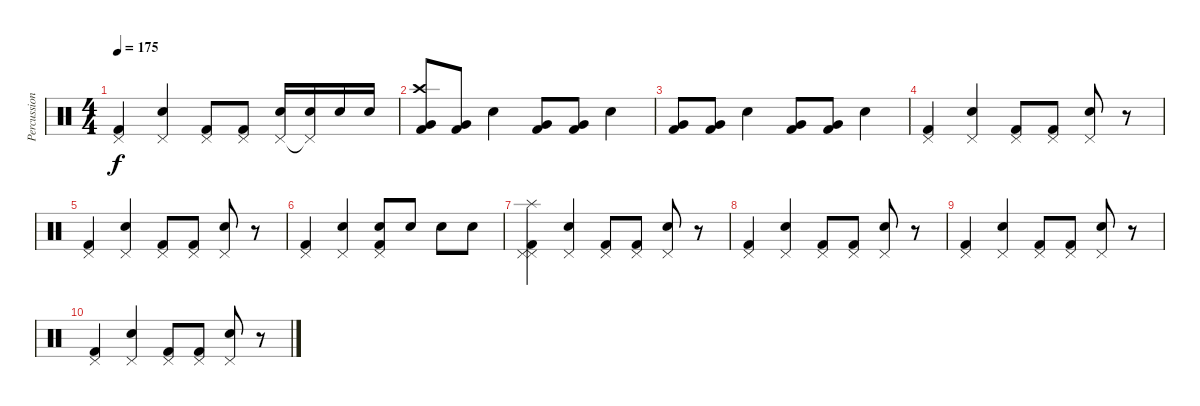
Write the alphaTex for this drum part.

\track ("Percussion" "Percussion") {instrument percussion}
\staff {score}
\articulation defaults
\ts (4 4)
\tempo 175
\clef neutral
\ks c
("Pedal Hi-Hat (hit)" "Kick (hit) 2").4{dy f} ("Pedal Hi-Hat (hit)" "Snare (hit) 2").4 ("Pedal Hi-Hat (hit)" "Kick (hit) 2").8 ("Pedal Hi-Hat (hit)" "Kick (hit) 2").8 ("Pedal Hi-Hat (hit)" "Snare (hit) 2").16 ("Pedal Hi-Hat (hit)"{t} "Snare (hit) 2").16 "Snare (hit) 2".16 "Snare (hit) 2".16 |
("Crash high (hit)" "Very Low Tom (hit)" "Kick (hit) 2").8 ("Very Low Tom (hit)" "Kick (hit) 2").8 "Snare (hit) 2".4 ("Very Low Tom (hit)" "Kick (hit) 2").8 ("Very Low Tom (hit)" "Kick (hit) 2").8 "Snare (hit) 2".4 |
("Very Low Tom (hit)" "Kick (hit) 2").8 ("Very Low Tom (hit)" "Kick (hit) 2").8 "Snare (hit) 2".4 ("Very Low Tom (hit)" "Kick (hit) 2").8 ("Very Low Tom (hit)" "Kick (hit) 2").8 "Snare (hit) 2".4 |
("Pedal Hi-Hat (hit)" "Kick (hit) 2").4 ("Pedal Hi-Hat (hit)" "Snare (hit) 2").4 ("Pedal Hi-Hat (hit)" "Kick (hit) 2").8 ("Pedal Hi-Hat (hit)" "Kick (hit) 2").8 ("Pedal Hi-Hat (hit)" "Snare (hit) 2").8 r.8 |
("Pedal Hi-Hat (hit)" "Kick (hit) 2").4 ("Pedal Hi-Hat (hit)" "Snare (hit) 2").4 ("Pedal Hi-Hat (hit)" "Kick (hit) 2").8 ("Pedal Hi-Hat (hit)" "Kick (hit) 2").8 ("Pedal Hi-Hat (hit)" "Snare (hit) 2").8 r.8 |
("Pedal Hi-Hat (hit)" "Kick (hit) 2").4 ("Pedal Hi-Hat (hit)" "Snare (hit) 2").4 ("Pedal Hi-Hat (hit)" "Snare (hit) 2" "Kick (hit) 2").8 "Snare (hit) 2".8 "Snare (hit) 2".8 "Snare (hit) 2".8 |
("Splash (hit)" "Pedal Hi-Hat (hit)" "Pedal Hi-Hat (hit)" "Kick (hit) 2").4 ("Pedal Hi-Hat (hit)" "Snare (hit) 2").4 ("Pedal Hi-Hat (hit)" "Kick (hit) 2").8 ("Pedal Hi-Hat (hit)" "Kick (hit) 2").8 ("Pedal Hi-Hat (hit)" "Snare (hit) 2").8 r.8 |
("Pedal Hi-Hat (hit)" "Kick (hit) 2").4 ("Pedal Hi-Hat (hit)" "Snare (hit) 2").4 ("Pedal Hi-Hat (hit)" "Kick (hit) 2").8 ("Pedal Hi-Hat (hit)" "Kick (hit) 2").8 ("Pedal Hi-Hat (hit)" "Snare (hit) 2").8 r.8 |
("Pedal Hi-Hat (hit)" "Kick (hit) 2").4 ("Pedal Hi-Hat (hit)" "Snare (hit) 2").4 ("Pedal Hi-Hat (hit)" "Kick (hit) 2").8 ("Pedal Hi-Hat (hit)" "Kick (hit) 2").8 ("Pedal Hi-Hat (hit)" "Snare (hit) 2").8 r.8 |
("Pedal Hi-Hat (hit)" "Kick (hit) 2").4 ("Pedal Hi-Hat (hit)" "Snare (hit) 2").4 ("Pedal Hi-Hat (hit)" "Kick (hit) 2").8 ("Pedal Hi-Hat (hit)" "Kick (hit) 2").8 ("Pedal Hi-Hat (hit)" "Snare (hit) 2").8 r.8
